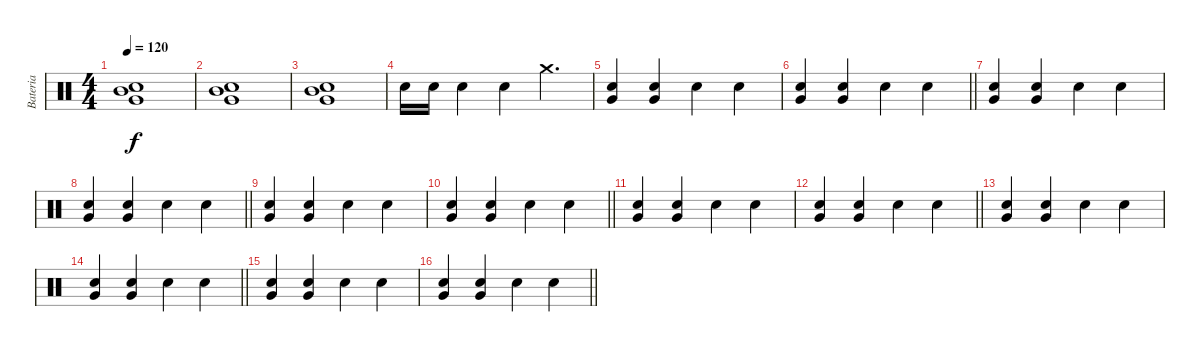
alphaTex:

\track ("Bateria" "Bateria") {instrument percussion}
\staff {score}
\articulation defaults
\ts (4 4)
\tempo 120
\clef neutral
\ks c
("Snare (hit) 2" "Very Low Tom (hit)" "Mid Tom (hit)").1{dy f} |
("Snare (hit) 2" "Very Low Tom (hit)" "Mid Tom (hit)").1 |
("Snare (hit) 2" "Very Low Tom (hit)" "Mid Tom (hit)").1 |
"Snare (hit) 2".16 "Snare (hit) 2".16 "Snare (hit) 2".4 "Snare (hit) 2".4 "Crash medium (hit)".4{d} |
("Snare (hit) 2" "Very Low Tom (hit)").4 ("Snare (hit) 2" "Very Low Tom (hit)").4 "Snare (hit) 2".4 "Snare (hit) 2".4 |
\barLineRight lightlight
("Snare (hit) 2" "Very Low Tom (hit)").4 ("Snare (hit) 2" "Very Low Tom (hit)").4 "Snare (hit) 2".4 "Snare (hit) 2".4 |
("Snare (hit) 2" "Very Low Tom (hit)").4 ("Snare (hit) 2" "Very Low Tom (hit)").4 "Snare (hit) 2".4 "Snare (hit) 2".4 |
\barLineRight lightlight
("Snare (hit) 2" "Very Low Tom (hit)").4 ("Snare (hit) 2" "Very Low Tom (hit)").4 "Snare (hit) 2".4 "Snare (hit) 2".4 |
("Snare (hit) 2" "Very Low Tom (hit)").4 ("Snare (hit) 2" "Very Low Tom (hit)").4 "Snare (hit) 2".4 "Snare (hit) 2".4 |
\barLineRight lightlight
("Snare (hit) 2" "Very Low Tom (hit)").4 ("Snare (hit) 2" "Very Low Tom (hit)").4 "Snare (hit) 2".4 "Snare (hit) 2".4 |
("Snare (hit) 2" "Very Low Tom (hit)").4 ("Snare (hit) 2" "Very Low Tom (hit)").4 "Snare (hit) 2".4 "Snare (hit) 2".4 |
\barLineRight lightlight
("Snare (hit) 2" "Very Low Tom (hit)").4 ("Snare (hit) 2" "Very Low Tom (hit)").4 "Snare (hit) 2".4 "Snare (hit) 2".4 |
("Snare (hit) 2" "Very Low Tom (hit)").4 ("Snare (hit) 2" "Very Low Tom (hit)").4 "Snare (hit) 2".4 "Snare (hit) 2".4 |
\barLineRight lightlight
("Snare (hit) 2" "Very Low Tom (hit)").4 ("Snare (hit) 2" "Very Low Tom (hit)").4 "Snare (hit) 2".4 "Snare (hit) 2".4 |
("Snare (hit) 2" "Very Low Tom (hit)").4 ("Snare (hit) 2" "Very Low Tom (hit)").4 "Snare (hit) 2".4 "Snare (hit) 2".4 |
\barLineRight lightlight
("Snare (hit) 2" "Very Low Tom (hit)").4 ("Snare (hit) 2" "Very Low Tom (hit)").4 "Snare (hit) 2".4 "Snare (hit) 2".4
